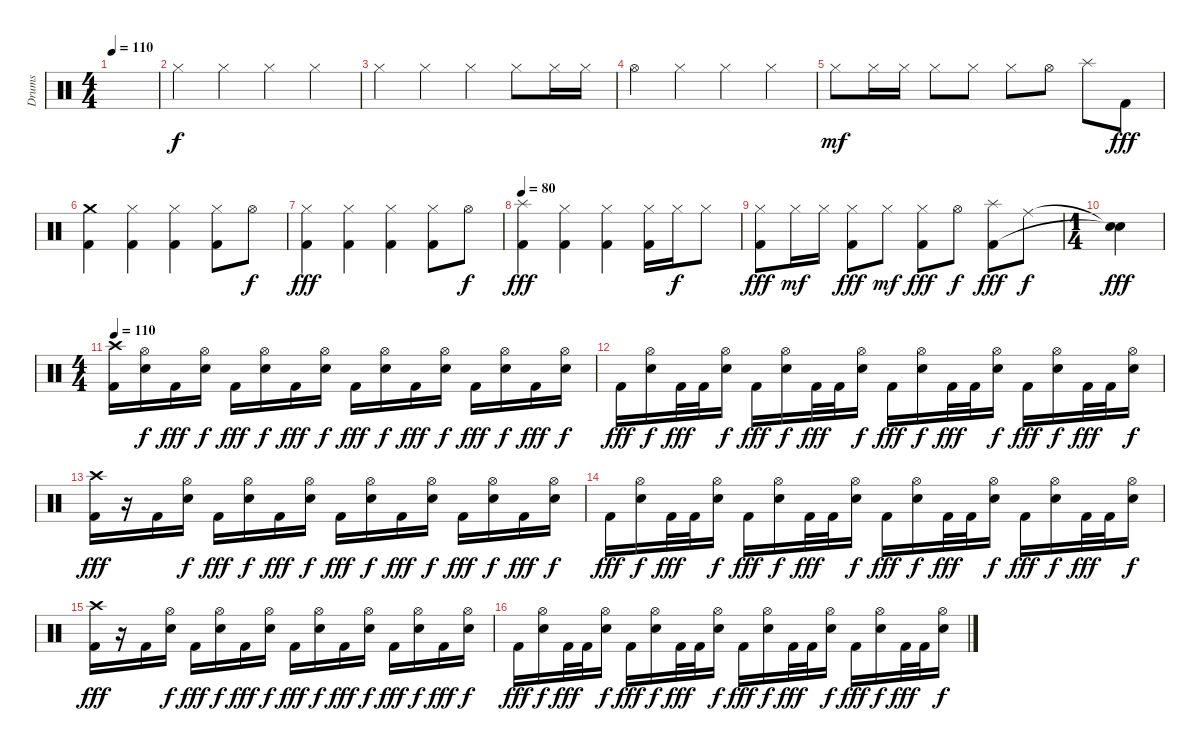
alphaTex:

\track ("Drums" "Drums") {instrument percussion}
\staff {score}
\articulation defaults
\ts (4 4)
\tempo 110
\clef neutral
\ks c
|
"Hi-Hat (closed)".4 "Hi-Hat (closed)".4 "Hi-Hat (closed)".4 "Hi-Hat (closed)".4 |
"Hi-Hat (closed)".4 "Hi-Hat (closed)".4 "Hi-Hat (closed)".4 "Hi-Hat (closed)".8 "Hi-Hat (closed)".16 "Hi-Hat (closed)".16 |
"Hi-Hat (open)".4 "Hi-Hat (closed)".4 "Hi-Hat (closed)".4 "Hi-Hat (closed)".4 |
"Hi-Hat (closed)".8{dy mf} "Hi-Hat (closed)".16 "Hi-Hat (closed)".16 "Hi-Hat (closed)".8 "Hi-Hat (closed)".8 "Hi-Hat (closed)".8 "Hi-Hat (open)".8 "Splash (hit)".8 "Kick (hit) 2".8{dy fff} |
("Crash medium (hit)" "Kick (hit) 2").4 ("Hi-Hat (closed)" "Kick (hit) 2").4 ("Hi-Hat (closed)" "Kick (hit) 2").4 ("Hi-Hat (closed)" "Kick (hit) 2").8 "Hi-Hat (open)".8{dy f} |
("Hi-Hat (closed)" "Kick (hit) 2").4{dy fff} ("Hi-Hat (closed)" "Kick (hit) 2").4 ("Hi-Hat (closed)" "Kick (hit) 2").4 ("Hi-Hat (closed)" "Kick (hit) 2").8 "Hi-Hat (open)".8{dy f} |
\tempo 80
("Splash (hit)" "Kick (hit) 2").4{dy fff} ("Hi-Hat (closed)" "Kick (hit) 2").4 ("Hi-Hat (closed)" "Kick (hit) 2").4 ("Hi-Hat (closed)" "Kick (hit) 2").16 "Hi-Hat (closed)".16{dy f} "Hi-Hat (closed)".8 |
("Hi-Hat (closed)" "Kick (hit) 2").8{dy fff} "Hi-Hat (closed)".16{dy mf} "Hi-Hat (closed)".16 ("Hi-Hat (closed)" "Kick (hit) 2").8{dy fff} "Hi-Hat (closed)".8{dy mf} ("Hi-Hat (closed)" "Kick (hit) 2").8{dy fff} "Hi-Hat (open)".8{dy f} ("Splash (hit)" "Kick (hit) 2").8{dy fff} "Ride (middle)".8{dy f} |
\ts (1 4)
("Snare (hit)"{t} "Snare (hit)"{t}).4{dy fff} |
\ts (4 4)
\tempo 110
("Crash high (hit)" "Kick (hit) 2").16 ("Hi-Hat (open)" "Snare (hit) 2").16{dy f} "Kick (hit) 2".16{dy fff} ("Hi-Hat (open)" "Snare (hit) 2").16{dy f} "Kick (hit) 2".16{dy fff} ("Hi-Hat (open)" "Snare (hit) 2").16{dy f} "Kick (hit) 2".16{dy fff} ("Hi-Hat (open)" "Snare (hit) 2").16{dy f} "Kick (hit) 2".16{dy fff} ("Hi-Hat (open)" "Snare (hit) 2").16{dy f} "Kick (hit) 2".16{dy fff} ("Hi-Hat (open)" "Snare (hit) 2").16{dy f} "Kick (hit) 2".16{dy fff} ("Hi-Hat (open)" "Snare (hit) 2").16{dy f} "Kick (hit) 2".16{dy fff} ("Hi-Hat (open)" "Snare (hit) 2").16{dy f} |
"Kick (hit) 2".16{dy fff} ("Hi-Hat (open)" "Snare (hit) 2").16{dy f} "Kick (hit) 2".32{dy fff} "Kick (hit) 2".32 ("Hi-Hat (open)" "Snare (hit) 2").16{dy f} "Kick (hit) 2".16{dy fff} ("Hi-Hat (open)" "Snare (hit) 2").16{dy f} "Kick (hit) 2".32{dy fff} "Kick (hit) 2".32 ("Hi-Hat (open)" "Snare (hit) 2").16{dy f} "Kick (hit) 2".16{dy fff} ("Hi-Hat (open)" "Snare (hit) 2").16{dy f} "Kick (hit) 2".32{dy fff} "Kick (hit) 2".32 ("Hi-Hat (open)" "Snare (hit) 2").16{dy f} "Kick (hit) 2".16{dy fff} ("Hi-Hat (open)" "Snare (hit) 2").16{dy f} "Kick (hit) 2".32{dy fff} "Kick (hit) 2".32 ("Hi-Hat (open)" "Snare (hit) 2").16{dy f} |
("Crash high (hit)" "Kick (hit) 2").16{dy fff} r.16 "Kick (hit) 2".16 ("Hi-Hat (open)" "Snare (hit) 2").16{dy f} "Kick (hit) 2".16{dy fff} ("Hi-Hat (open)" "Snare (hit) 2").16{dy f} "Kick (hit) 2".16{dy fff} ("Hi-Hat (open)" "Snare (hit) 2").16{dy f} "Kick (hit) 2".16{dy fff} ("Hi-Hat (open)" "Snare (hit) 2").16{dy f} "Kick (hit) 2".16{dy fff} ("Hi-Hat (open)" "Snare (hit) 2").16{dy f} "Kick (hit) 2".16{dy fff} ("Hi-Hat (open)" "Snare (hit) 2").16{dy f} "Kick (hit) 2".16{dy fff} ("Hi-Hat (open)" "Snare (hit) 2").16{dy f} |
"Kick (hit) 2".16{dy fff} ("Hi-Hat (open)" "Snare (hit) 2").16{dy f} "Kick (hit) 2".32{dy fff} "Kick (hit) 2".32 ("Hi-Hat (open)" "Snare (hit) 2").16{dy f} "Kick (hit) 2".16{dy fff} ("Hi-Hat (open)" "Snare (hit) 2").16{dy f} "Kick (hit) 2".32{dy fff} "Kick (hit) 2".32 ("Hi-Hat (open)" "Snare (hit) 2").16{dy f} "Kick (hit) 2".16{dy fff} ("Hi-Hat (open)" "Snare (hit) 2").16{dy f} "Kick (hit) 2".32{dy fff} "Kick (hit) 2".32 ("Hi-Hat (open)" "Snare (hit) 2").16{dy f} "Kick (hit) 2".16{dy fff} ("Hi-Hat (open)" "Snare (hit) 2").16{dy f} "Kick (hit) 2".32{dy fff} "Kick (hit) 2".32 ("Hi-Hat (open)" "Snare (hit) 2").16{dy f} |
("Crash high (hit)" "Kick (hit) 2").16{dy fff} r.16 "Kick (hit) 2".16 ("Hi-Hat (open)" "Snare (hit) 2").16{dy f} "Kick (hit) 2".16{dy fff} ("Hi-Hat (open)" "Snare (hit) 2").16{dy f} "Kick (hit) 2".16{dy fff} ("Hi-Hat (open)" "Snare (hit) 2").16{dy f} "Kick (hit) 2".16{dy fff} ("Hi-Hat (open)" "Snare (hit) 2").16{dy f} "Kick (hit) 2".16{dy fff} ("Hi-Hat (open)" "Snare (hit) 2").16{dy f} "Kick (hit) 2".16{dy fff} ("Hi-Hat (open)" "Snare (hit) 2").16{dy f} "Kick (hit) 2".16{dy fff} ("Hi-Hat (open)" "Snare (hit) 2").16{dy f} |
"Kick (hit) 2".16{dy fff} ("Hi-Hat (open)" "Snare (hit) 2").16{dy f} "Kick (hit) 2".32{dy fff} "Kick (hit) 2".32 ("Hi-Hat (open)" "Snare (hit) 2").16{dy f} "Kick (hit) 2".16{dy fff} ("Hi-Hat (open)" "Snare (hit) 2").16{dy f} "Kick (hit) 2".32{dy fff} "Kick (hit) 2".32 ("Hi-Hat (open)" "Snare (hit) 2").16{dy f} "Kick (hit) 2".16{dy fff} ("Hi-Hat (open)" "Snare (hit) 2").16{dy f} "Kick (hit) 2".32{dy fff} "Kick (hit) 2".32 ("Hi-Hat (open)" "Snare (hit) 2").16{dy f} "Kick (hit) 2".16{dy fff} ("Hi-Hat (open)" "Snare (hit) 2").16{dy f} "Kick (hit) 2".32{dy fff} "Kick (hit) 2".32 ("Hi-Hat (open)" "Snare (hit) 2").16{dy f}
